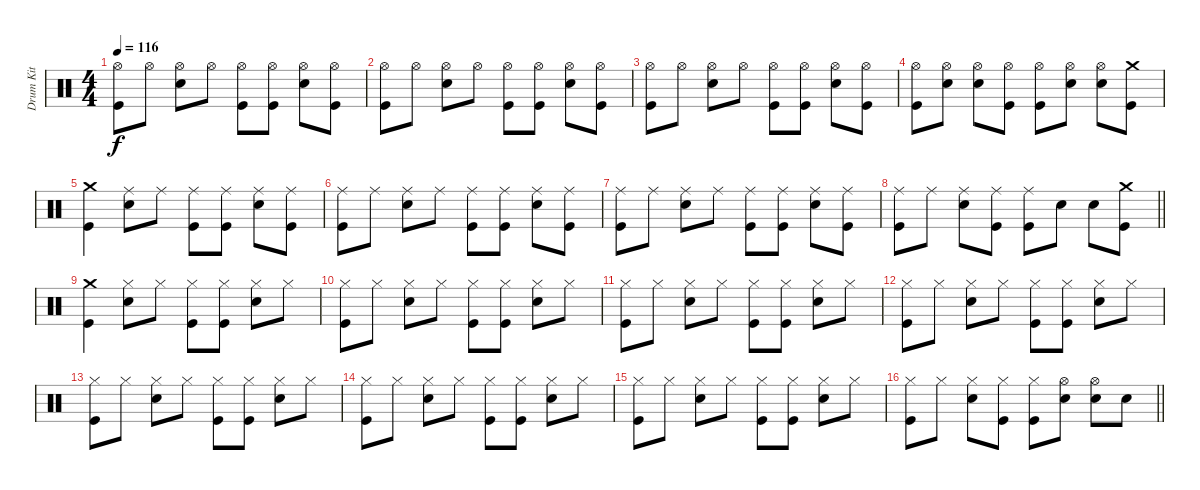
\track ("Drum Kit" "Drum Kit") {instrument percussion}
\staff {score}
\articulation defaults
\ts (4 4)
\tempo 116
\clef neutral
\ks c
("Hi-Hat (open)" "Kick (hit)").8{dy f} "Hi-Hat (open)".8 ("Hi-Hat (open)" "Snare (hit) 2").8 "Hi-Hat (open)".8 ("Hi-Hat (open)" "Kick (hit)").8 ("Hi-Hat (open)" "Kick (hit)").8 ("Hi-Hat (open)" "Snare (hit) 2").8 ("Hi-Hat (open)" "Kick (hit)").8 |
("Hi-Hat (open)" "Kick (hit)").8 "Hi-Hat (open)".8 ("Hi-Hat (open)" "Snare (hit) 2").8 "Hi-Hat (open)".8 ("Hi-Hat (open)" "Kick (hit)").8 ("Hi-Hat (open)" "Kick (hit)").8 ("Hi-Hat (open)" "Snare (hit) 2").8 ("Hi-Hat (open)" "Kick (hit)").8 |
("Hi-Hat (open)" "Kick (hit)").8 "Hi-Hat (open)".8 ("Hi-Hat (open)" "Snare (hit) 2").8 "Hi-Hat (open)".8 ("Hi-Hat (open)" "Kick (hit)").8 ("Hi-Hat (open)" "Kick (hit)").8 ("Hi-Hat (open)" "Snare (hit) 2").8 ("Hi-Hat (open)" "Kick (hit)").8 |
("Hi-Hat (open)" "Kick (hit)").8 ("Hi-Hat (open)" "Snare (hit) 2").8 ("Hi-Hat (open)" "Snare (hit) 2").8 ("Hi-Hat (open)" "Kick (hit)").8 ("Hi-Hat (open)" "Kick (hit)").8 ("Hi-Hat (open)" "Snare (hit) 2").8 ("Hi-Hat (open)" "Snare (hit) 2").8 ("Crash medium (hit)" "Kick (hit)").8 |
("Crash medium (hit)" "Kick (hit)").4 ("Ride (middle)" "Snare (hit) 2").8 "Ride (middle)".8 ("Ride (middle)" "Kick (hit)").8 ("Ride (middle)" "Kick (hit)").8 ("Ride (middle)" "Snare (hit) 2").8 ("Ride (middle)" "Kick (hit)").8 |
("Ride (middle)" "Kick (hit)").8 "Ride (middle)".8 ("Ride (middle)" "Snare (hit) 2").8 "Ride (middle)".8 ("Ride (middle)" "Kick (hit)").8 ("Ride (middle)" "Kick (hit)").8 ("Ride (middle)" "Snare (hit) 2").8 ("Ride (middle)" "Kick (hit)").8 |
("Ride (middle)" "Kick (hit)").8 "Ride (middle)".8 ("Ride (middle)" "Snare (hit) 2").8 "Ride (middle)".8 ("Ride (middle)" "Kick (hit)").8 ("Ride (middle)" "Kick (hit)").8 ("Ride (middle)" "Snare (hit) 2").8 ("Ride (middle)" "Kick (hit)").8 |
\barLineRight lightlight
("Ride (middle)" "Kick (hit)").8 "Ride (middle)".8 ("Ride (middle)" "Snare (hit) 2").8 ("Ride (middle)" "Kick (hit)").8 ("Ride (middle)" "Kick (hit)").8 "Snare (hit) 2".8 "Snare (hit) 2".8 ("Crash medium (hit)" "Kick (hit)").8 |
("Crash medium (hit)" "Kick (hit)").4 ("Hi-Hat (closed)" "Snare (hit) 2").8 "Hi-Hat (closed)".8 ("Hi-Hat (closed)" "Kick (hit)").8 ("Hi-Hat (closed)" "Kick (hit)").8 ("Hi-Hat (closed)" "Snare (hit) 2").8 "Hi-Hat (closed)".8 |
("Hi-Hat (closed)" "Kick (hit)").8 "Hi-Hat (closed)".8 ("Hi-Hat (closed)" "Snare (hit) 2").8 "Hi-Hat (closed)".8 ("Hi-Hat (closed)" "Kick (hit)").8 ("Hi-Hat (closed)" "Kick (hit)").8 ("Hi-Hat (closed)" "Snare (hit) 2").8 "Hi-Hat (closed)".8 |
("Hi-Hat (closed)" "Kick (hit)").8 "Hi-Hat (closed)".8 ("Hi-Hat (closed)" "Snare (hit) 2").8 "Hi-Hat (closed)".8 ("Hi-Hat (closed)" "Kick (hit)").8 ("Hi-Hat (closed)" "Kick (hit)").8 ("Hi-Hat (closed)" "Snare (hit) 2").8 "Hi-Hat (closed)".8 |
("Hi-Hat (closed)" "Kick (hit)").8 "Hi-Hat (closed)".8 ("Hi-Hat (closed)" "Snare (hit) 2").8 "Hi-Hat (closed)".8 ("Hi-Hat (closed)" "Kick (hit)").8 ("Hi-Hat (closed)" "Kick (hit)").8 ("Hi-Hat (closed)" "Snare (hit) 2").8 "Hi-Hat (closed)".8 |
("Hi-Hat (closed)" "Kick (hit)").8 "Hi-Hat (closed)".8 ("Hi-Hat (closed)" "Snare (hit) 2").8 "Hi-Hat (closed)".8 ("Hi-Hat (closed)" "Kick (hit)").8 ("Hi-Hat (closed)" "Kick (hit)").8 ("Hi-Hat (closed)" "Snare (hit) 2").8 "Hi-Hat (closed)".8 |
("Hi-Hat (closed)" "Kick (hit)").8 "Hi-Hat (closed)".8 ("Hi-Hat (closed)" "Snare (hit) 2").8 "Hi-Hat (closed)".8 ("Hi-Hat (closed)" "Kick (hit)").8 ("Hi-Hat (closed)" "Kick (hit)").8 ("Hi-Hat (closed)" "Snare (hit) 2").8 "Hi-Hat (closed)".8 |
("Hi-Hat (closed)" "Kick (hit)").8 "Hi-Hat (closed)".8 ("Hi-Hat (closed)" "Snare (hit) 2").8 "Hi-Hat (closed)".8 ("Hi-Hat (closed)" "Kick (hit)").8 ("Hi-Hat (closed)" "Kick (hit)").8 ("Hi-Hat (closed)" "Snare (hit) 2").8 "Hi-Hat (closed)".8 |
\barLineRight lightlight
("Hi-Hat (closed)" "Kick (hit)").8 "Hi-Hat (closed)".8 ("Hi-Hat (closed)" "Snare (hit) 2").8 ("Hi-Hat (closed)" "Kick (hit)").8 ("Hi-Hat (closed)" "Kick (hit)").8 ("Hi-Hat (open)" "Snare (hit) 2").8 ("Hi-Hat (open)" "Snare (hit) 2").8 "Snare (hit) 2".8
